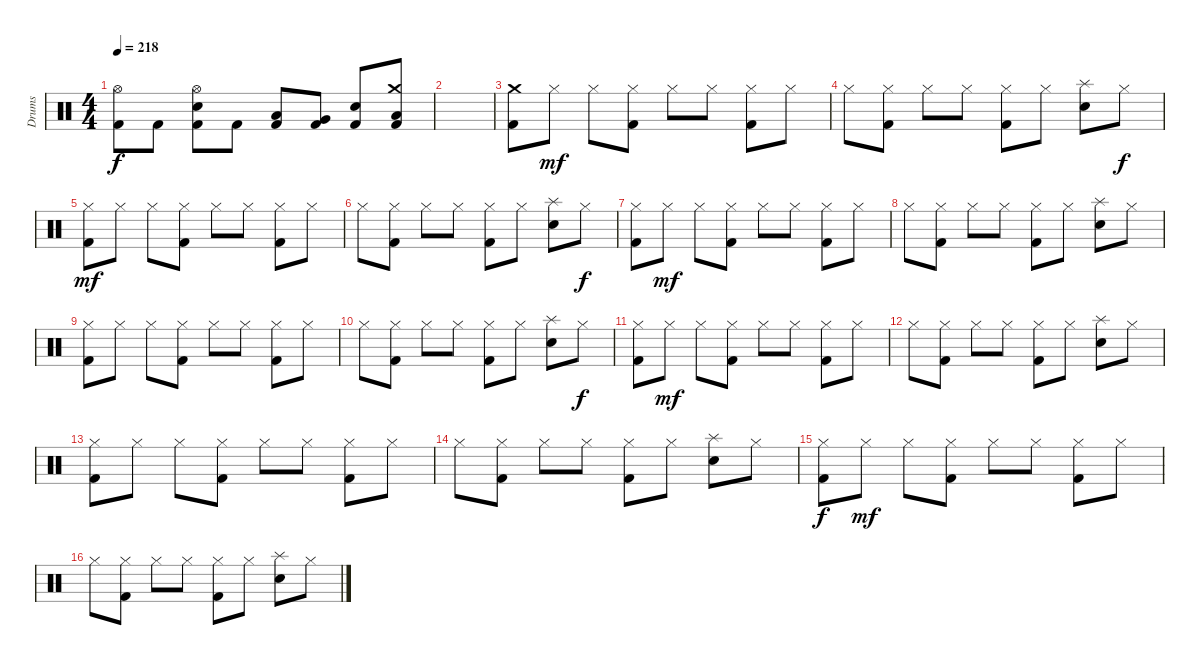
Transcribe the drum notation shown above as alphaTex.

\track ("Drums" "Drums") {instrument percussion}
\staff {score}
\articulation defaults
\ts (4 4)
\tempo 218
\clef neutral
\ks c
("Hi-Hat (open)" "Kick (hit) 2").8{dy f} "Kick (hit) 2".8 ("Hi-Hat (open)" "Snare (hit) 2" "Kick (hit) 2").8 "Kick (hit) 2".8 ("Low Tom (hit)" "Kick (hit) 2").8 ("Very Low Tom (hit)" "Kick (hit) 2").8 ("Snare (hit) 2" "Kick (hit) 2").8 ("Crash medium (hit)" "Low Floor Tom (hit)" "Kick (hit) 2").8 |
|
("Crash medium (hit)" "Kick (hit) 2").8 "Hi-Hat (closed)".8{dy mf} "Hi-Hat (closed)".8 ("Hi-Hat (closed)" "Kick (hit) 2").8 "Hi-Hat (closed)".8 "Hi-Hat (closed)".8 ("Hi-Hat (closed)" "Kick (hit) 2").8 "Hi-Hat (closed)".8 |
"Hi-Hat (closed)".8 ("Hi-Hat (closed)" "Kick (hit) 2").8 "Hi-Hat (closed)".8 "Hi-Hat (closed)".8 ("Hi-Hat (closed)" "Kick (hit) 2").8 "Hi-Hat (closed)".8 ("Splash (hit)" "Snare (hit) 2").8 "Hi-Hat (closed)".8{dy f} |
("Hi-Hat (closed)" "Kick (hit) 2").8{dy mf} "Hi-Hat (closed)".8 "Hi-Hat (closed)".8 ("Hi-Hat (closed)" "Kick (hit) 2").8 "Hi-Hat (closed)".8 "Hi-Hat (closed)".8 ("Hi-Hat (closed)" "Kick (hit) 2").8 "Hi-Hat (closed)".8 |
"Hi-Hat (closed)".8 ("Hi-Hat (closed)" "Kick (hit) 2").8 "Hi-Hat (closed)".8 "Hi-Hat (closed)".8 ("Hi-Hat (closed)" "Kick (hit) 2").8 "Hi-Hat (closed)".8 ("Splash (hit)" "Snare (hit) 2").8 "Hi-Hat (closed)".8{dy f} |
("Hi-Hat (closed)" "Kick (hit) 2").8 "Hi-Hat (closed)".8{dy mf} "Hi-Hat (closed)".8 ("Hi-Hat (closed)" "Kick (hit) 2").8 "Hi-Hat (closed)".8 "Hi-Hat (closed)".8 ("Hi-Hat (closed)" "Kick (hit) 2").8 "Hi-Hat (closed)".8 |
"Hi-Hat (closed)".8 ("Hi-Hat (closed)" "Kick (hit) 2").8 "Hi-Hat (closed)".8 "Hi-Hat (closed)".8 ("Hi-Hat (closed)" "Kick (hit) 2").8 "Hi-Hat (closed)".8 ("Splash (hit)" "Snare (hit) 2").8 "Hi-Hat (closed)".8 |
("Hi-Hat (closed)" "Kick (hit) 2").8 "Hi-Hat (closed)".8 "Hi-Hat (closed)".8 ("Hi-Hat (closed)" "Kick (hit) 2").8 "Hi-Hat (closed)".8 "Hi-Hat (closed)".8 ("Hi-Hat (closed)" "Kick (hit) 2").8 "Hi-Hat (closed)".8 |
"Hi-Hat (closed)".8 ("Hi-Hat (closed)" "Kick (hit) 2").8 "Hi-Hat (closed)".8 "Hi-Hat (closed)".8 ("Hi-Hat (closed)" "Kick (hit) 2").8 "Hi-Hat (closed)".8 ("Splash (hit)" "Snare (hit) 2").8 "Hi-Hat (closed)".8{dy f} |
("Hi-Hat (closed)" "Kick (hit) 2").8 "Hi-Hat (closed)".8{dy mf} "Hi-Hat (closed)".8 ("Hi-Hat (closed)" "Kick (hit) 2").8 "Hi-Hat (closed)".8 "Hi-Hat (closed)".8 ("Hi-Hat (closed)" "Kick (hit) 2").8 "Hi-Hat (closed)".8 |
"Hi-Hat (closed)".8 ("Hi-Hat (closed)" "Kick (hit) 2").8 "Hi-Hat (closed)".8 "Hi-Hat (closed)".8 ("Hi-Hat (closed)" "Kick (hit) 2").8 "Hi-Hat (closed)".8 ("Splash (hit)" "Snare (hit) 2").8 "Hi-Hat (closed)".8 |
("Hi-Hat (closed)" "Kick (hit) 2").8 "Hi-Hat (closed)".8 "Hi-Hat (closed)".8 ("Hi-Hat (closed)" "Kick (hit) 2").8 "Hi-Hat (closed)".8 "Hi-Hat (closed)".8 ("Hi-Hat (closed)" "Kick (hit) 2").8 "Hi-Hat (closed)".8 |
"Hi-Hat (closed)".8 ("Hi-Hat (closed)" "Kick (hit) 2").8 "Hi-Hat (closed)".8 "Hi-Hat (closed)".8 ("Hi-Hat (closed)" "Kick (hit) 2").8 "Hi-Hat (closed)".8 ("Splash (hit)" "Snare (hit) 2").8 "Hi-Hat (closed)".8 |
("Hi-Hat (closed)" "Kick (hit) 2").8{dy f} "Hi-Hat (closed)".8{dy mf} "Hi-Hat (closed)".8 ("Hi-Hat (closed)" "Kick (hit) 2").8 "Hi-Hat (closed)".8 "Hi-Hat (closed)".8 ("Hi-Hat (closed)" "Kick (hit) 2").8 "Hi-Hat (closed)".8 |
"Hi-Hat (closed)".8 ("Hi-Hat (closed)" "Kick (hit) 2").8 "Hi-Hat (closed)".8 "Hi-Hat (closed)".8 ("Hi-Hat (closed)" "Kick (hit) 2").8 "Hi-Hat (closed)".8 ("Splash (hit)" "Snare (hit) 2").8 "Hi-Hat (closed)".8
